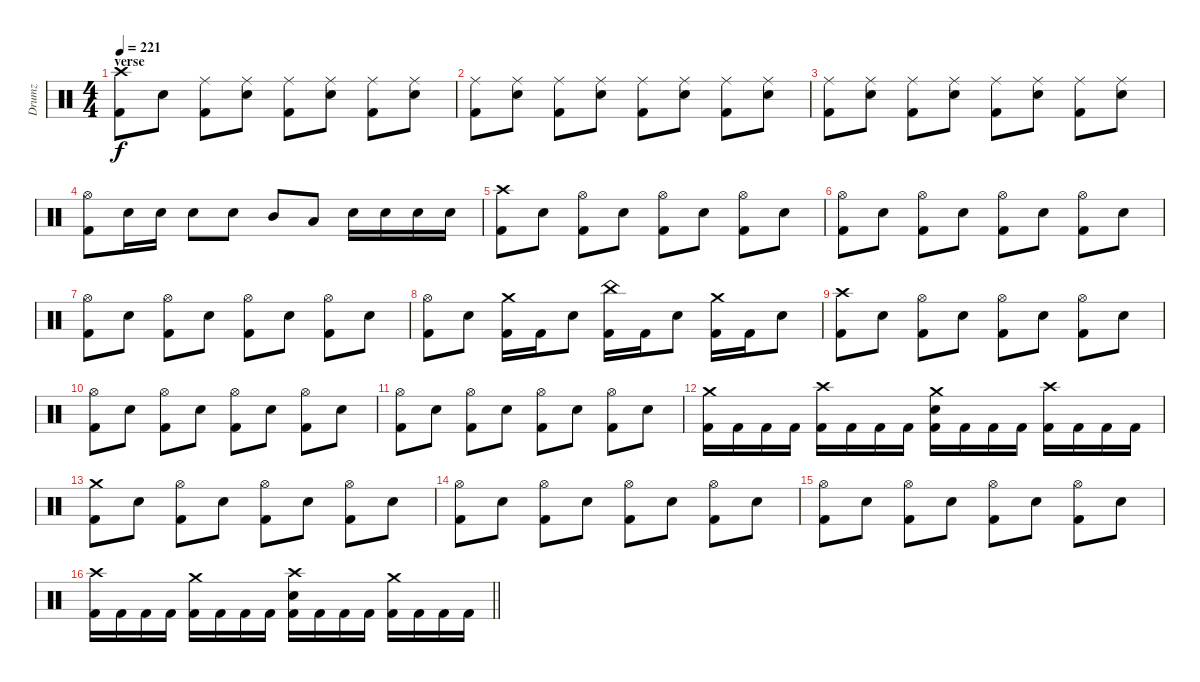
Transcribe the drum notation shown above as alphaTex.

\track ("Drumz" "Drumz") {instrument percussion}
\staff {score}
\articulation defaults
\ts (4 4)
\section ("" "verse")
\tempo 221
\clef neutral
\ks c
("Crash high (hit)" "Kick (hit) 2").8{dy f} "Electric Snare (hit)".8 ("Ride (middle)" "Kick (hit) 2").8 ("Ride (middle)" "Electric Snare (hit)").8 ("Ride (middle)" "Kick (hit) 2").8 ("Ride (middle)" "Electric Snare (hit)").8 ("Ride (middle)" "Kick (hit) 2").8 ("Ride (middle)" "Electric Snare (hit)").8 |
("Ride (middle)" "Kick (hit) 2").8 ("Ride (middle)" "Electric Snare (hit)").8 ("Ride (middle)" "Kick (hit) 2").8 ("Ride (middle)" "Electric Snare (hit)").8 ("Ride (middle)" "Kick (hit) 2").8 ("Ride (middle)" "Electric Snare (hit)").8 ("Ride (middle)" "Kick (hit) 2").8 ("Ride (middle)" "Electric Snare (hit)").8 |
("Ride (middle)" "Kick (hit) 2").8 ("Ride (middle)" "Electric Snare (hit)").8 ("Ride (middle)" "Kick (hit) 2").8 ("Ride (middle)" "Electric Snare (hit)").8 ("Ride (middle)" "Kick (hit) 2").8 ("Ride (middle)" "Electric Snare (hit)").8 ("Ride (middle)" "Kick (hit) 2").8 ("Ride (middle)" "Electric Snare (hit)").8 |
("Hi-Hat (open)" "Kick (hit) 2").8 "Electric Snare (hit)".16 "Electric Snare (hit)".16 "Electric Snare (hit)".8 "Electric Snare (hit)".8 "Mid Tom (hit)".8 "Low Tom (hit)".8 "Electric Snare (hit)".16 "Electric Snare (hit)".16 "Electric Snare (hit)".16 "Electric Snare (hit)".16 |
("Crash high (hit)" "Kick (hit) 2").8 "Electric Snare (hit)".8 ("Hi-Hat (open)" "Kick (hit) 2").8 "Electric Snare (hit)".8 ("Hi-Hat (open)" "Kick (hit) 2").8 "Electric Snare (hit)".8 ("Hi-Hat (open)" "Kick (hit) 2").8 "Electric Snare (hit)".8 |
("Hi-Hat (open)" "Kick (hit) 2").8 "Electric Snare (hit)".8 ("Hi-Hat (open)" "Kick (hit) 2").8 "Electric Snare (hit)".8 ("Hi-Hat (open)" "Kick (hit) 2").8 "Electric Snare (hit)".8 ("Hi-Hat (open)" "Kick (hit) 2").8 "Electric Snare (hit)".8 |
("Hi-Hat (open)" "Kick (hit) 2").8 "Electric Snare (hit)".8 ("Hi-Hat (open)" "Kick (hit) 2").8 "Electric Snare (hit)".8 ("Hi-Hat (open)" "Kick (hit) 2").8 "Electric Snare (hit)".8 ("Hi-Hat (open)" "Kick (hit) 2").8 "Electric Snare (hit)".8 |
("Hi-Hat (open)" "Kick (hit) 2").8 "Electric Snare (hit)".8 ("Crash medium (hit)" "Kick (hit) 2").16 "Kick (hit) 2".16 "Electric Snare (hit)".8 ("China (hit)" "Kick (hit) 2").16 "Kick (hit) 2".16 "Electric Snare (hit)".8 ("Crash medium (hit)" "Kick (hit) 2").16 "Kick (hit) 2".16 "Electric Snare (hit)".8 |
("Crash high (hit)" "Kick (hit) 2").8 "Electric Snare (hit)".8 ("Hi-Hat (open)" "Kick (hit) 2").8 "Electric Snare (hit)".8 ("Hi-Hat (open)" "Kick (hit) 2").8 "Electric Snare (hit)".8 ("Hi-Hat (open)" "Kick (hit) 2").8 "Electric Snare (hit)".8 |
("Hi-Hat (open)" "Kick (hit) 2").8 "Electric Snare (hit)".8 ("Hi-Hat (open)" "Kick (hit) 2").8 "Electric Snare (hit)".8 ("Hi-Hat (open)" "Kick (hit) 2").8 "Electric Snare (hit)".8 ("Hi-Hat (open)" "Kick (hit) 2").8 "Electric Snare (hit)".8 |
("Hi-Hat (open)" "Kick (hit) 2").8 "Electric Snare (hit)".8 ("Hi-Hat (open)" "Kick (hit) 2").8 "Electric Snare (hit)".8 ("Hi-Hat (open)" "Kick (hit) 2").8 "Electric Snare (hit)".8 ("Hi-Hat (open)" "Kick (hit) 2").8 "Electric Snare (hit)".8 |
("Crash medium (hit)" "Kick (hit) 2").16 "Kick (hit) 2".16 "Kick (hit) 2".16 "Kick (hit) 2".16 ("Crash high (hit)" "Kick (hit) 2").16 "Kick (hit) 2".16 "Kick (hit) 2".16 "Kick (hit) 2".16 ("Crash medium (hit)" "Electric Snare (hit)" "Kick (hit) 2").16 "Kick (hit) 2".16 "Kick (hit) 2".16 "Kick (hit) 2".16 ("Crash high (hit)" "Kick (hit) 2").16 "Kick (hit) 2".16 "Kick (hit) 2".16 "Kick (hit) 2".16 |
("Crash medium (hit)" "Kick (hit) 2").8 "Electric Snare (hit)".8 ("Hi-Hat (open)" "Kick (hit) 2").8 "Electric Snare (hit)".8 ("Hi-Hat (open)" "Kick (hit) 2").8 "Electric Snare (hit)".8 ("Hi-Hat (open)" "Kick (hit) 2").8 "Electric Snare (hit)".8 |
("Hi-Hat (open)" "Kick (hit) 2").8 "Electric Snare (hit)".8 ("Hi-Hat (open)" "Kick (hit) 2").8 "Electric Snare (hit)".8 ("Hi-Hat (open)" "Kick (hit) 2").8 "Electric Snare (hit)".8 ("Hi-Hat (open)" "Kick (hit) 2").8 "Electric Snare (hit)".8 |
("Hi-Hat (open)" "Kick (hit) 2").8 "Electric Snare (hit)".8 ("Hi-Hat (open)" "Kick (hit) 2").8 "Electric Snare (hit)".8 ("Hi-Hat (open)" "Kick (hit) 2").8 "Electric Snare (hit)".8 ("Hi-Hat (open)" "Kick (hit) 2").8 "Electric Snare (hit)".8 |
\barLineRight lightlight
("Crash high (hit)" "Kick (hit) 2").16 "Kick (hit) 2".16 "Kick (hit) 2".16 "Kick (hit) 2".16 ("Crash medium (hit)" "Kick (hit) 2").16 "Kick (hit) 2".16 "Kick (hit) 2".16 "Kick (hit) 2".16 ("Crash high (hit)" "Electric Snare (hit)" "Kick (hit) 2").16 "Kick (hit) 2".16 "Kick (hit) 2".16 "Kick (hit) 2".16 ("Crash medium (hit)" "Kick (hit) 2").16 "Kick (hit) 2".16 "Kick (hit) 2".16 "Kick (hit) 2".16
